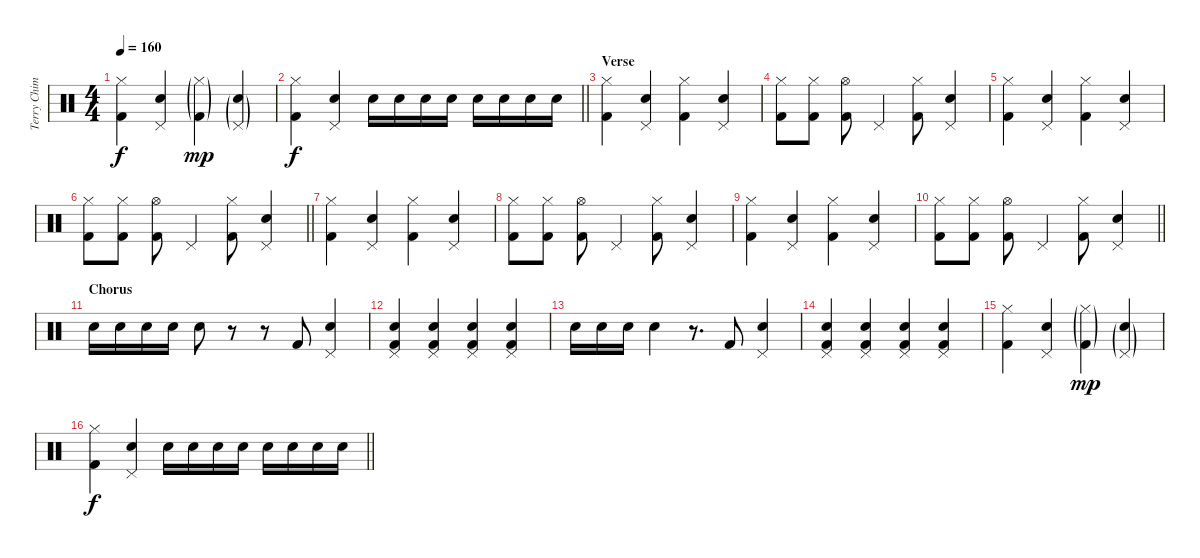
\track ("Terry Chimes - Drums" "Terry Chim") {instrument percussion}
\staff {score}
\articulation defaults
\ts (4 4)
\tempo 160
\clef neutral
\ks c
("Hi-Hat (closed)" "Kick (hit) 2").4{dy f} ("Pedal Hi-Hat (hit)" "Snare (hit) 2").4 ("Hi-Hat (closed)"{g} "Kick (hit) 2"{g}).4{dy mp} ("Pedal Hi-Hat (hit)"{g} "Snare (hit) 2"{g}).4 |
\barLineRight lightlight
("Hi-Hat (closed)" "Kick (hit) 2").4{dy f} ("Pedal Hi-Hat (hit)" "Snare (hit) 2").4 "Snare (hit) 2".16 "Snare (hit) 2".16 "Snare (hit) 2".16 "Snare (hit) 2".16 "Snare (hit) 2".16 "Snare (hit) 2".16 "Snare (hit) 2".16 "Snare (hit) 2".16 |
\section ("" "Verse")
("Hi-Hat (closed)" "Kick (hit) 2").4 ("Pedal Hi-Hat (hit)" "Snare (hit) 2").4 ("Hi-Hat (closed)" "Kick (hit) 2").4 ("Pedal Hi-Hat (hit)" "Snare (hit) 2").4 |
("Hi-Hat (closed)" "Kick (hit) 2").8 ("Hi-Hat (closed)" "Kick (hit) 2").8 ("Hi-Hat (open)" "Kick (hit) 2").8 "Pedal Hi-Hat (hit)".4 ("Hi-Hat (closed)" "Kick (hit) 2").8 ("Pedal Hi-Hat (hit)" "Snare (hit) 2").4 |
("Hi-Hat (closed)" "Kick (hit) 2").4 ("Pedal Hi-Hat (hit)" "Snare (hit) 2").4 ("Hi-Hat (closed)" "Kick (hit) 2").4 ("Pedal Hi-Hat (hit)" "Snare (hit) 2").4 |
\barLineRight lightlight
("Hi-Hat (closed)" "Kick (hit) 2").8 ("Hi-Hat (closed)" "Kick (hit) 2").8 ("Hi-Hat (open)" "Kick (hit) 2").8 "Pedal Hi-Hat (hit)".4 ("Hi-Hat (closed)" "Kick (hit) 2").8 ("Pedal Hi-Hat (hit)" "Snare (hit) 2").4 |
("Hi-Hat (closed)" "Kick (hit) 2").4 ("Pedal Hi-Hat (hit)" "Snare (hit) 2").4 ("Hi-Hat (closed)" "Kick (hit) 2").4 ("Pedal Hi-Hat (hit)" "Snare (hit) 2").4 |
("Hi-Hat (closed)" "Kick (hit) 2").8 ("Hi-Hat (closed)" "Kick (hit) 2").8 ("Hi-Hat (open)" "Kick (hit) 2").8 "Pedal Hi-Hat (hit)".4 ("Hi-Hat (closed)" "Kick (hit) 2").8 ("Pedal Hi-Hat (hit)" "Snare (hit) 2").4 |
("Hi-Hat (closed)" "Kick (hit) 2").4 ("Pedal Hi-Hat (hit)" "Snare (hit) 2").4 ("Hi-Hat (closed)" "Kick (hit) 2").4 ("Pedal Hi-Hat (hit)" "Snare (hit) 2").4 |
\barLineRight lightlight
("Hi-Hat (closed)" "Kick (hit) 2").8 ("Hi-Hat (closed)" "Kick (hit) 2").8 ("Hi-Hat (open)" "Kick (hit) 2").8 "Pedal Hi-Hat (hit)".4 ("Hi-Hat (closed)" "Kick (hit) 2").8 ("Pedal Hi-Hat (hit)" "Snare (hit) 2").4 |
\section ("" "Chorus")
"Snare (hit) 2".16 "Snare (hit) 2".16 "Snare (hit) 2".16 "Snare (hit) 2".16 "Snare (hit) 2".8 r.8 r.8 "Kick (hit) 2".8 ("Pedal Hi-Hat (hit)" "Snare (hit) 2").4 |
("Pedal Hi-Hat (hit)" "Snare (hit) 2" "Kick (hit) 2").4 ("Pedal Hi-Hat (hit)" "Snare (hit) 2" "Kick (hit) 2").4 ("Pedal Hi-Hat (hit)" "Snare (hit) 2" "Kick (hit) 2").4 ("Pedal Hi-Hat (hit)" "Snare (hit) 2" "Kick (hit) 2").4 |
"Snare (hit) 2".16 "Snare (hit) 2".16 "Snare (hit) 2".16 "Snare (hit) 2".4 r.8{d} "Kick (hit) 2".8 ("Pedal Hi-Hat (hit)" "Snare (hit) 2").4 |
("Pedal Hi-Hat (hit)" "Snare (hit) 2" "Kick (hit) 2").4 ("Pedal Hi-Hat (hit)" "Snare (hit) 2" "Kick (hit) 2").4 ("Pedal Hi-Hat (hit)" "Snare (hit) 2" "Kick (hit) 2").4 ("Pedal Hi-Hat (hit)" "Snare (hit) 2" "Kick (hit) 2").4 |
("Hi-Hat (closed)" "Kick (hit) 2").4 ("Pedal Hi-Hat (hit)" "Snare (hit) 2").4 ("Hi-Hat (closed)"{g} "Kick (hit) 2"{g}).4{dy mp} ("Pedal Hi-Hat (hit)"{g} "Snare (hit) 2"{g}).4 |
\barLineRight lightlight
("Hi-Hat (closed)" "Kick (hit) 2").4{dy f} ("Pedal Hi-Hat (hit)" "Snare (hit) 2").4 "Snare (hit) 2".16 "Snare (hit) 2".16 "Snare (hit) 2".16 "Snare (hit) 2".16 "Snare (hit) 2".16 "Snare (hit) 2".16 "Snare (hit) 2".16 "Snare (hit) 2".16
